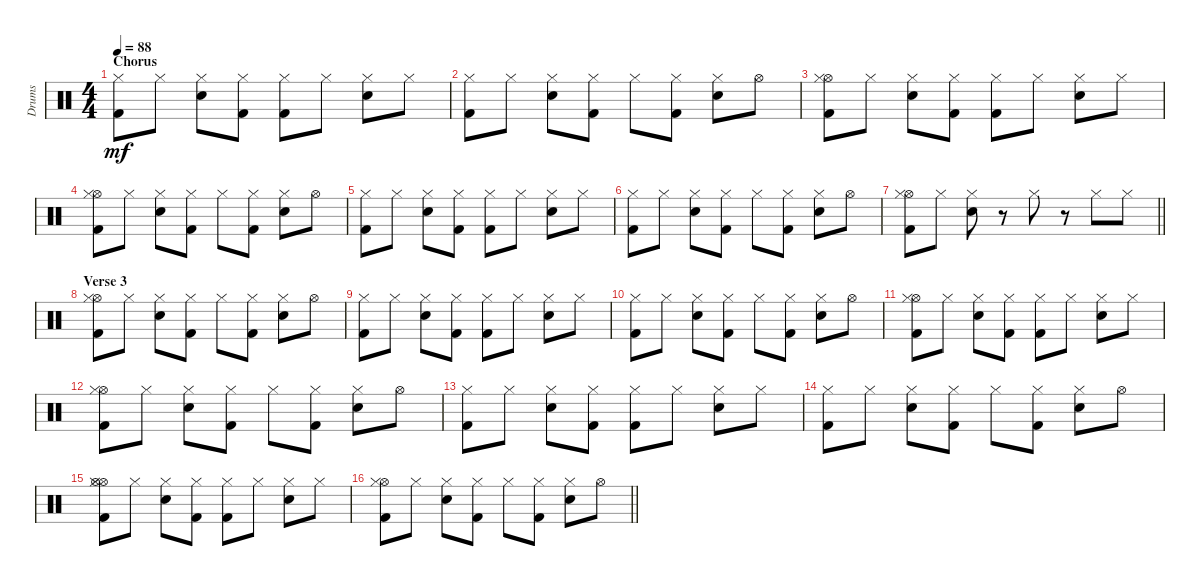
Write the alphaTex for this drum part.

\track ("Drums" "Drums") {instrument percussion}
\staff {score}
\articulation defaults
\ts (4 4)
\section ("" "Chorus")
\tempo 88
\clef neutral
\ks c
("Kick (hit) 2" "Hi-Hat (closed)").8{dy mf} "Hi-Hat (closed)".8 ("Snare (hit) 2" "Hi-Hat (closed)").8 ("Kick (hit) 2" "Hi-Hat (closed)").8 ("Kick (hit) 2" "Hi-Hat (closed)").8 "Hi-Hat (closed)".8 ("Snare (hit) 2" "Hi-Hat (closed)").8 "Hi-Hat (closed)".8 |
("Kick (hit) 2" "Hi-Hat (closed)").8 "Hi-Hat (closed)".8 ("Snare (hit) 2" "Hi-Hat (closed)").8 ("Kick (hit) 2" "Hi-Hat (closed)").8 "Hi-Hat (closed)".8 ("Kick (hit) 2" "Hi-Hat (closed)").8 ("Snare (hit) 2" "Hi-Hat (closed)").8 "Hi-Hat (open)".8 |
("Kick (hit) 2" "Hi-Hat (open)" "Hi-Hat (closed)").8 "Hi-Hat (closed)".8 ("Snare (hit) 2" "Hi-Hat (closed)").8 ("Kick (hit) 2" "Hi-Hat (closed)").8 ("Kick (hit) 2" "Hi-Hat (closed)").8 "Hi-Hat (closed)".8 ("Snare (hit) 2" "Hi-Hat (closed)").8 "Hi-Hat (closed)".8 |
("Kick (hit) 2" "Hi-Hat (open)" "Hi-Hat (closed)").8 "Hi-Hat (closed)".8 ("Snare (hit) 2" "Hi-Hat (closed)").8 ("Kick (hit) 2" "Hi-Hat (closed)").8 "Hi-Hat (closed)".8 ("Kick (hit) 2" "Hi-Hat (closed)").8 ("Snare (hit) 2" "Hi-Hat (closed)").8 "Hi-Hat (open)".8 |
("Kick (hit) 2" "Hi-Hat (closed)").8 "Hi-Hat (closed)".8 ("Snare (hit) 2" "Hi-Hat (closed)").8 ("Kick (hit) 2" "Hi-Hat (closed)").8 ("Kick (hit) 2" "Hi-Hat (closed)").8 "Hi-Hat (closed)".8 ("Snare (hit) 2" "Hi-Hat (closed)").8 "Hi-Hat (closed)".8 |
("Kick (hit) 2" "Hi-Hat (closed)").8 "Hi-Hat (closed)".8 ("Snare (hit) 2" "Hi-Hat (closed)").8 ("Kick (hit) 2" "Hi-Hat (closed)").8 "Hi-Hat (closed)".8 ("Kick (hit) 2" "Hi-Hat (closed)").8 ("Snare (hit) 2" "Hi-Hat (closed)").8 "Hi-Hat (open)".8 |
\barLineRight lightlight
("Kick (hit) 2" "Hi-Hat (open)" "Hi-Hat (closed)").8 "Hi-Hat (closed)".8 ("Snare (hit) 2" "Hi-Hat (closed)").8 r.8 "Hi-Hat (closed)".8 r.8 "Hi-Hat (closed)".8 "Hi-Hat (closed)".8 |
\section ("" "Verse 3")
("Kick (hit) 2" "Hi-Hat (open)" "Hi-Hat (closed)").8 "Hi-Hat (closed)".8 ("Snare (hit) 2" "Hi-Hat (closed)").8 ("Kick (hit) 2" "Hi-Hat (closed)").8 "Hi-Hat (closed)".8 ("Kick (hit) 2" "Hi-Hat (closed)").8 ("Snare (hit) 2" "Hi-Hat (closed)").8 "Hi-Hat (open)".8 |
("Kick (hit) 2" "Hi-Hat (closed)").8 "Hi-Hat (closed)".8 ("Snare (hit) 2" "Hi-Hat (closed)").8 ("Kick (hit) 2" "Hi-Hat (closed)").8 ("Kick (hit) 2" "Hi-Hat (closed)").8 "Hi-Hat (closed)".8 ("Snare (hit) 2" "Hi-Hat (closed)").8 "Hi-Hat (closed)".8 |
("Kick (hit) 2" "Hi-Hat (closed)").8 "Hi-Hat (closed)".8 ("Snare (hit) 2" "Hi-Hat (closed)").8 ("Kick (hit) 2" "Hi-Hat (closed)").8 "Hi-Hat (closed)".8 ("Kick (hit) 2" "Hi-Hat (closed)").8 ("Snare (hit) 2" "Hi-Hat (closed)").8 "Hi-Hat (open)".8 |
("Kick (hit) 2" "Hi-Hat (open)" "Hi-Hat (closed)").8 "Hi-Hat (closed)".8 ("Snare (hit) 2" "Hi-Hat (closed)").8 ("Kick (hit) 2" "Hi-Hat (closed)").8 ("Kick (hit) 2" "Hi-Hat (closed)").8 "Hi-Hat (closed)".8 ("Snare (hit) 2" "Hi-Hat (closed)").8 "Hi-Hat (closed)".8 |
("Kick (hit) 2" "Hi-Hat (open)" "Hi-Hat (closed)").8 "Hi-Hat (closed)".8 ("Snare (hit) 2" "Hi-Hat (closed)").8 ("Kick (hit) 2" "Hi-Hat (closed)").8 "Hi-Hat (closed)".8 ("Kick (hit) 2" "Hi-Hat (closed)").8 ("Snare (hit) 2" "Hi-Hat (closed)").8 "Hi-Hat (open)".8 |
("Kick (hit) 2" "Hi-Hat (closed)").8 "Hi-Hat (closed)".8 ("Snare (hit) 2" "Hi-Hat (closed)").8 ("Kick (hit) 2" "Hi-Hat (closed)").8 ("Kick (hit) 2" "Hi-Hat (closed)").8 "Hi-Hat (closed)".8 ("Snare (hit) 2" "Hi-Hat (closed)").8 "Hi-Hat (closed)".8 |
("Kick (hit) 2" "Hi-Hat (closed)").8 "Hi-Hat (closed)".8 ("Snare (hit) 2" "Hi-Hat (closed)").8 ("Kick (hit) 2" "Hi-Hat (closed)").8 "Hi-Hat (closed)".8 ("Kick (hit) 2" "Hi-Hat (closed)").8 ("Snare (hit) 2" "Hi-Hat (closed)").8 "Hi-Hat (open)".8 |
("Kick (hit) 2" "Hi-Hat (open)" "Hi-Hat (open)" "Hi-Hat (closed)").8 "Hi-Hat (closed)".8 ("Snare (hit) 2" "Hi-Hat (closed)").8 ("Kick (hit) 2" "Hi-Hat (closed)").8 ("Kick (hit) 2" "Hi-Hat (closed)").8 "Hi-Hat (closed)".8 ("Snare (hit) 2" "Hi-Hat (closed)").8 "Hi-Hat (closed)".8 |
\barLineRight lightlight
("Kick (hit) 2" "Hi-Hat (open)" "Hi-Hat (closed)").8 "Hi-Hat (closed)".8 ("Snare (hit) 2" "Hi-Hat (closed)").8 ("Kick (hit) 2" "Hi-Hat (closed)").8 "Hi-Hat (closed)".8 ("Kick (hit) 2" "Hi-Hat (closed)").8 ("Snare (hit) 2" "Hi-Hat (closed)").8 "Hi-Hat (open)".8
